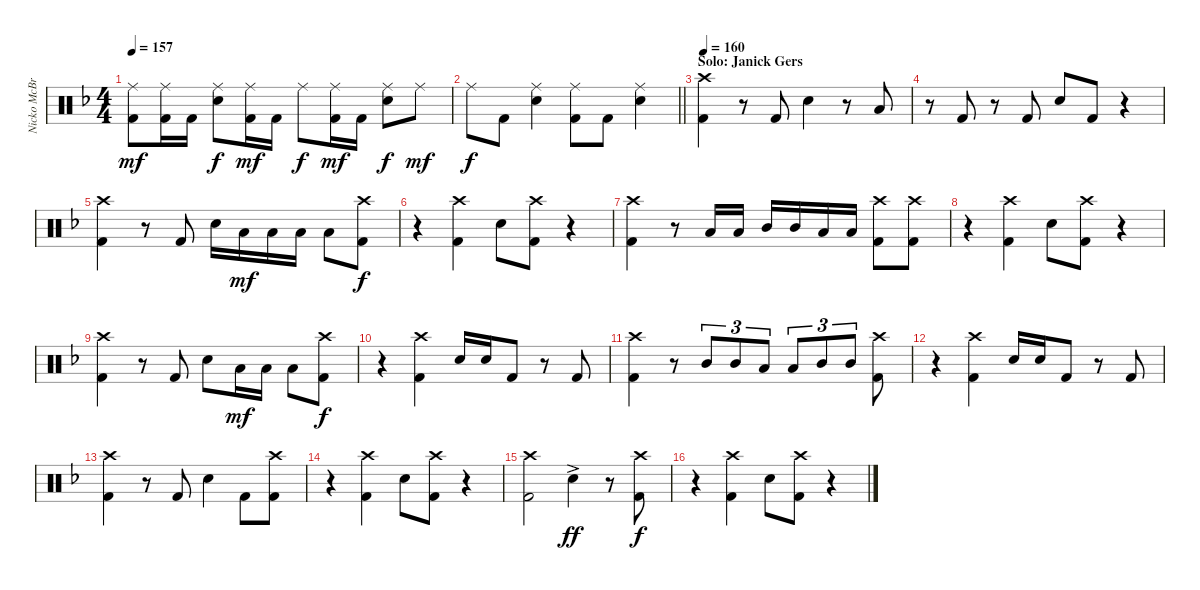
\track ("Nicko McBrain" "Nicko McBr") {instrument percussion}
\staff {score}
\articulation defaults
\ts (4 4)
\tempo 157
\clef neutral
\ks f
("Ride (middle)" "Kick (hit) 2").8{dy mf} ("Ride (middle)" "Kick (hit) 2").16 "Kick (hit) 2".16 ("Ride (middle)" "Electric Snare (hit)").8{dy f} ("Ride (middle)" "Kick (hit) 2").16{dy mf} "Kick (hit) 2".16 "Ride (middle)".8{dy f} ("Ride (middle)" "Kick (hit) 2").16{dy mf} "Kick (hit) 2".16 ("Ride (middle)" "Electric Snare (hit)").8{dy f} "Ride (middle)".8{dy mf} |
\barLineRight lightlight "Ride (middle)".8{dy f} "Kick (hit) 2".8
("Ride (middle)" "Electric Snare (hit)").4 ("Ride (middle)" "Kick (hit) 2").8 "Kick (hit) 2".8 ("Ride (middle)" "Electric Snare (hit)").4 |
\section ("" "Solo: Janick Gers")
\tempo 160
("Crash high (hit)" "Kick (hit) 2").4 r.8 "Kick (hit) 2".8 "Electric Snare (hit)".4 r.8 "Low Tom (hit)".8 |
r.8 "Kick (hit) 2".8 r.8 "Kick (hit) 2".8 "Electric Snare (hit)".8 "Kick (hit) 2".8 r.4 |
("Crash high (hit)" "Kick (hit) 2").4 r.8 "Kick (hit) 2".8 "Electric Snare (hit)".16 "Low Tom (hit)".16{dy mf} "Low Tom (hit)".16 "Low Tom (hit)".16 "Low Tom (hit)".8 ("Crash high (hit)" "Kick (hit) 2").8{dy f} |
r.4 ("Crash high (hit)" "Kick (hit) 2").4 "Electric Snare (hit)".8 ("Crash high (hit)" "Kick (hit) 2").8 r.4 |
("Crash high (hit)" "Kick (hit) 2").4 r.8 "Low Tom (hit)".16 "Low Tom (hit)".16 "Mid Tom (hit)".16 "Mid Tom (hit)".16 "Low Tom (hit)".16 "Low Tom (hit)".16 ("Crash high (hit)" "Kick (hit) 2").8 ("Crash high (hit)" "Kick (hit) 2").8 |
r.4 ("Crash high (hit)" "Kick (hit) 2").4 "Electric Snare (hit)".8 ("Crash high (hit)" "Kick (hit) 2").8 r.4 |
("Crash high (hit)" "Kick (hit) 2").4 r.8 "Kick (hit) 2".8 "Electric Snare (hit)".8 "Low Tom (hit)".16{dy mf} "Low Tom (hit)".16 "Low Tom (hit)".8 ("Crash high (hit)" "Kick (hit) 2").8{dy f} |
r.4 ("Crash high (hit)" "Kick (hit) 2").4 "Electric Snare (hit)".16 "Electric Snare (hit)".16 "Kick (hit) 2".8 r.8 "Kick (hit) 2".8 |
("Crash high (hit)" "Kick (hit) 2").4 r.8 "Mid Tom (hit)".8{tu (3 2)} "Mid Tom (hit)".8{tu (3 2)} "Low Tom (hit)".8{tu (3 2)} "Low Tom (hit)".8{tu (3 2)} "Mid Tom (hit)".8{tu (3 2)} "Mid Tom (hit)".8{tu (3 2)} ("Crash high (hit)" "Kick (hit) 2").8 |
r.4 ("Crash high (hit)" "Kick (hit) 2").4 "Electric Snare (hit)".16 "Electric Snare (hit)".16 "Kick (hit) 2".8 r.8 "Kick (hit) 2".8 |
("Crash high (hit)" "Kick (hit) 2").4 r.8 "Kick (hit) 2".8 "Electric Snare (hit)".4 "Kick (hit) 2".8 ("Crash high (hit)" "Kick (hit) 2").8 |
r.4 ("Crash high (hit)" "Kick (hit) 2").4 "Electric Snare (hit)".8 ("Crash high (hit)" "Kick (hit) 2").8 r.4 |
("Crash high (hit)" "Kick (hit) 2").2 "Electric Snare (hit)"{ac}.4{dy ff} r.8 ("Crash high (hit)" "Kick (hit) 2").8{dy f} |
r.4 ("Crash high (hit)" "Kick (hit) 2").4 "Electric Snare (hit)".8 ("Crash high (hit)" "Kick (hit) 2").8 r.4
